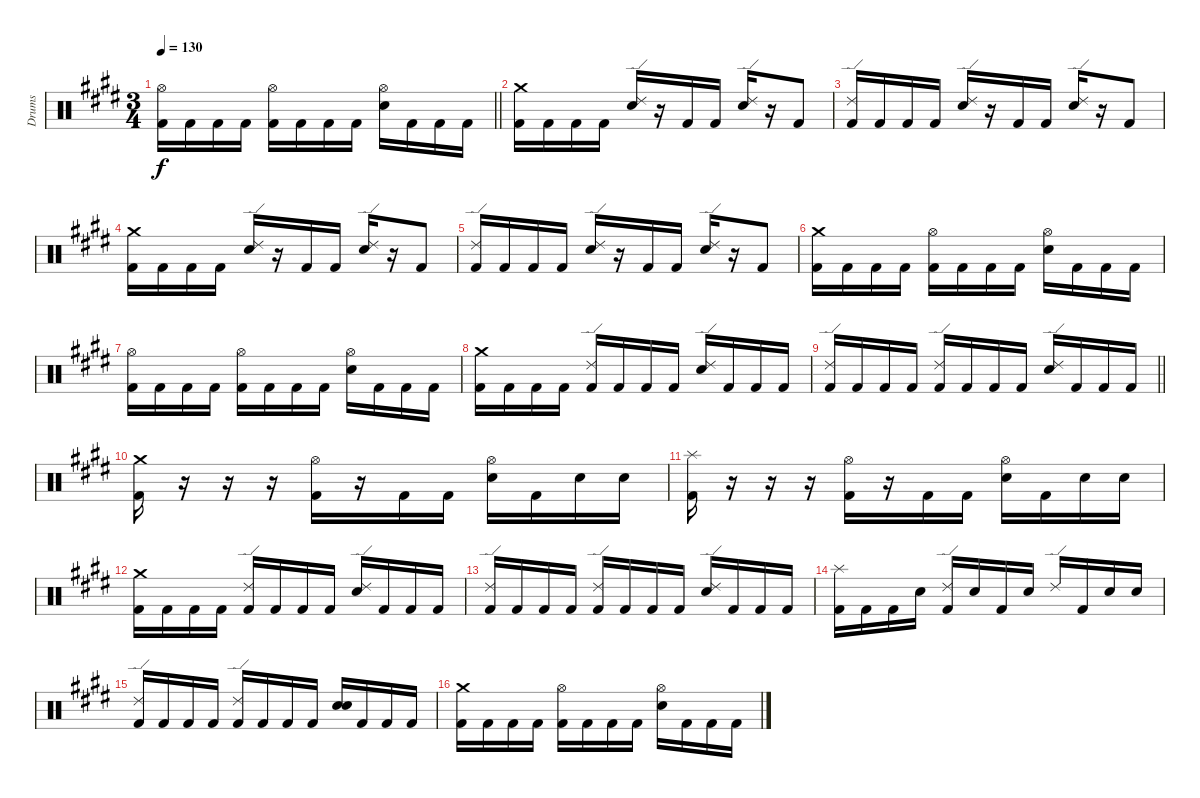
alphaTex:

\track ("Drums" "Drums") {instrument percussion}
\staff {score}
\articulation defaults
\ts (3 4)
\tempo 130
\clef neutral
\barLineRight lightlight
\ks e
("Kick (hit) 2" "Hi-Hat (open)").16{dy f} "Kick (hit) 2".16 "Kick (hit) 2".16 "Kick (hit) 2".16 ("Kick (hit) 2" "Hi-Hat (open)").16 "Kick (hit) 2".16 "Kick (hit) 2".16 "Kick (hit) 2".16 ("Electric Snare (hit)" "Hi-Hat (open)").16 "Kick (hit) 2".16 "Kick (hit) 2".16 "Kick (hit) 2".16 |
("Kick (hit) 2" "Crash medium (hit)").16 "Kick (hit) 2".16 "Kick (hit) 2".16 "Kick (hit) 2".16 ("Electric Snare (hit)" "Ride (edge) 2").16 r.16 "Kick (hit) 2".16 "Kick (hit) 2".16 ("Electric Snare (hit)" "Ride (edge) 2").16 r.16 "Kick (hit) 2".8 |
("Kick (hit) 2" "Ride (edge) 2").16 "Kick (hit) 2".16 "Kick (hit) 2".16 "Kick (hit) 2".16 ("Electric Snare (hit)" "Ride (edge) 2").16 r.16 "Kick (hit) 2".16 "Kick (hit) 2".16 ("Electric Snare (hit)" "Ride (edge) 2").16 r.16 "Kick (hit) 2".8 |
("Kick (hit) 2" "Crash medium (hit)").16 "Kick (hit) 2".16 "Kick (hit) 2".16 "Kick (hit) 2".16 ("Electric Snare (hit)" "Ride (edge) 2").16 r.16 "Kick (hit) 2".16 "Kick (hit) 2".16 ("Electric Snare (hit)" "Ride (edge) 2").16 r.16 "Kick (hit) 2".8 |
("Kick (hit) 2" "Ride (edge) 2").16 "Kick (hit) 2".16 "Kick (hit) 2".16 "Kick (hit) 2".16 ("Electric Snare (hit)" "Ride (edge) 2").16 r.16 "Kick (hit) 2".16 "Kick (hit) 2".16 ("Electric Snare (hit)" "Ride (edge) 2").16 r.16 "Kick (hit) 2".8 |
("Kick (hit) 2" "Crash medium (hit)").16 "Kick (hit) 2".16 "Kick (hit) 2".16 "Kick (hit) 2".16 ("Kick (hit) 2" "Hi-Hat (open)").16 "Kick (hit) 2".16 "Kick (hit) 2".16 "Kick (hit) 2".16 ("Electric Snare (hit)" "Hi-Hat (open)").16 "Kick (hit) 2".16 "Kick (hit) 2".16 "Kick (hit) 2".16 |
("Kick (hit) 2" "Hi-Hat (open)").16 "Kick (hit) 2".16 "Kick (hit) 2".16 "Kick (hit) 2".16 ("Kick (hit) 2" "Hi-Hat (open)").16 "Kick (hit) 2".16 "Kick (hit) 2".16 "Kick (hit) 2".16 ("Electric Snare (hit)" "Hi-Hat (open)").16 "Kick (hit) 2".16 "Kick (hit) 2".16 "Kick (hit) 2".16 |
("Kick (hit) 2" "Crash medium (hit)").16 "Kick (hit) 2".16 "Kick (hit) 2".16 "Kick (hit) 2".16 ("Kick (hit) 2" "Ride (edge) 2").16 "Kick (hit) 2".16 "Kick (hit) 2".16 "Kick (hit) 2".16 ("Electric Snare (hit)" "Ride (edge) 2").16 "Kick (hit) 2".16 "Kick (hit) 2".16 "Kick (hit) 2".16 |
\barLineRight lightlight
("Kick (hit) 2" "Ride (edge) 2").16 "Kick (hit) 2".16 "Kick (hit) 2".16 "Kick (hit) 2".16 ("Kick (hit) 2" "Ride (edge) 2").16 "Kick (hit) 2".16 "Kick (hit) 2".16 "Kick (hit) 2".16 ("Electric Snare (hit)" "Ride (edge) 2").16 "Kick (hit) 2".16 "Kick (hit) 2".16 "Kick (hit) 2".16 |
("Kick (hit) 2" "Crash medium (hit)").16 r.16 r.16 r.16 ("Kick (hit) 2" "Hi-Hat (open)").16 r.16 "Kick (hit) 2".16 "Kick (hit) 2".16 ("Electric Snare (hit)" "Hi-Hat (open)").16 "Kick (hit) 2".16 "Electric Snare (hit)".16 "Electric Snare (hit)".16 |
("Kick (hit) 2" "Splash (hit)").16 r.16 r.16 r.16 ("Kick (hit) 2" "Hi-Hat (open)").16 r.16 "Kick (hit) 2".16 "Kick (hit) 2".16 ("Electric Snare (hit)" "Hi-Hat (open)").16 "Kick (hit) 2".16 "Electric Snare (hit)".16 "Electric Snare (hit)".16 |
("Kick (hit) 2" "Crash medium (hit)").16 "Kick (hit) 2".16 "Kick (hit) 2".16 "Kick (hit) 2".16 ("Kick (hit) 2" "Ride (edge) 2").16 "Kick (hit) 2".16 "Kick (hit) 2".16 "Kick (hit) 2".16 ("Electric Snare (hit)" "Ride (edge) 2").16 "Kick (hit) 2".16 "Kick (hit) 2".16 "Kick (hit) 2".16 |
("Kick (hit) 2" "Ride (edge) 2").16 "Kick (hit) 2".16 "Kick (hit) 2".16 "Kick (hit) 2".16 ("Kick (hit) 2" "Ride (edge) 2").16 "Kick (hit) 2".16 "Kick (hit) 2".16 "Kick (hit) 2".16 ("Electric Snare (hit)" "Ride (edge) 2").16 "Kick (hit) 2".16 "Kick (hit) 2".16 "Kick (hit) 2".16 |
("Kick (hit) 2" "Splash (hit)").16 "Kick (hit) 2".16 "Kick (hit) 2".16 "Electric Snare (hit)".16 ("Kick (hit) 2" "Ride (edge) 2").16 "Electric Snare (hit)".16 "Kick (hit) 2".16 "Electric Snare (hit)".16 "Ride (edge) 2".16 "Kick (hit) 2".16 "Electric Snare (hit)".16 "Electric Snare (hit)".16 |
("Kick (hit) 2" "Ride (edge) 2").16 "Kick (hit) 2".16 "Kick (hit) 2".16 "Kick (hit) 2".16 ("Kick (hit) 2" "Ride (edge) 2").16 "Kick (hit) 2".16 "Kick (hit) 2".16 "Kick (hit) 2".16 ("Electric Snare (hit)" "Snare (hit)").16 "Kick (hit) 2".16 "Kick (hit) 2".16 "Kick (hit) 2".16 |
("Kick (hit) 2" "Crash medium (hit)").16 "Kick (hit) 2".16 "Kick (hit) 2".16 "Kick (hit) 2".16 ("Kick (hit) 2" "Hi-Hat (open)").16 "Kick (hit) 2".16 "Kick (hit) 2".16 "Kick (hit) 2".16 ("Electric Snare (hit)" "Hi-Hat (open)").16 "Kick (hit) 2".16 "Kick (hit) 2".16 "Kick (hit) 2".16
